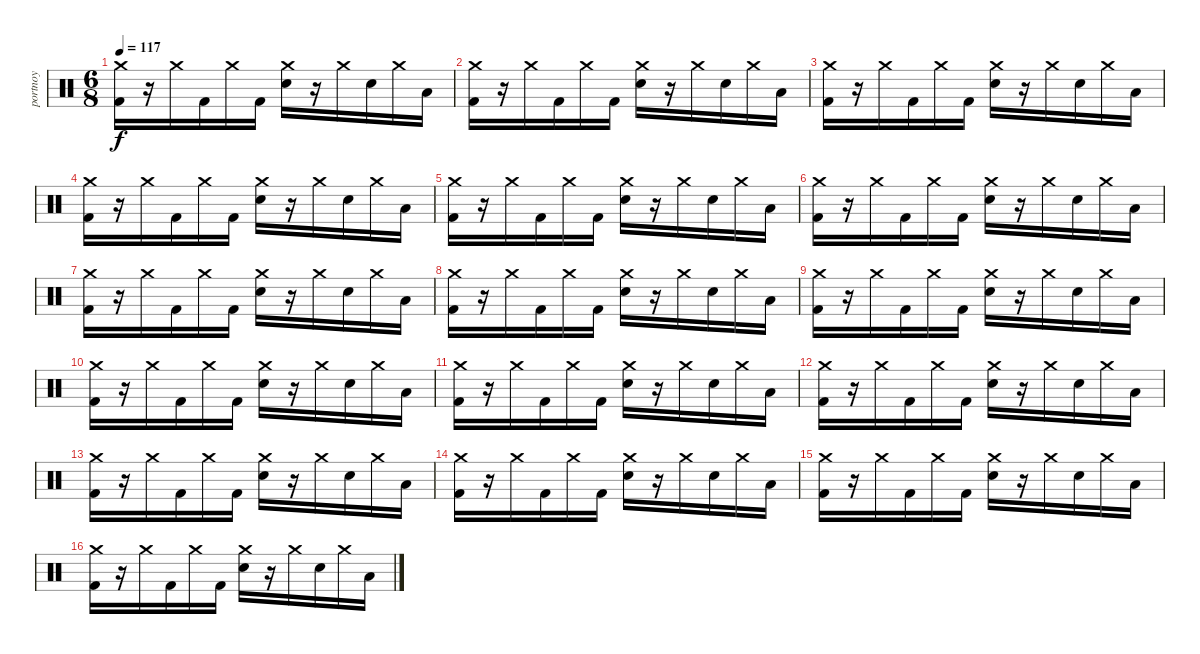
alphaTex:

\track ("portnoy" "portnoy") {instrument percussion}
\staff {score}
\articulation defaults
\ts (6 8)
\tempo 117
\clef neutral
\ks c
("Crash medium (hit)" "Kick (hit) 2").16{dy f} r.16 "Crash medium (hit)".16 "Kick (hit) 2".16 "Crash medium (hit)".16 "Kick (hit) 2".16 ("Crash medium (hit)" "Electric Snare (hit)").16 r.16 "Crash medium (hit)".16 "Electric Snare (hit)".16 "Crash medium (hit)".16 "Low Tom (hit)".16 |
("Crash medium (hit)" "Kick (hit) 2").16 r.16 "Crash medium (hit)".16 "Kick (hit) 2".16 "Crash medium (hit)".16 "Kick (hit) 2".16 ("Crash medium (hit)" "Electric Snare (hit)").16 r.16 "Crash medium (hit)".16 "Electric Snare (hit)".16 "Crash medium (hit)".16 "Low Tom (hit)".16 |
("Crash medium (hit)" "Kick (hit) 2").16 r.16 "Crash medium (hit)".16 "Kick (hit) 2".16 "Crash medium (hit)".16 "Kick (hit) 2".16 ("Crash medium (hit)" "Electric Snare (hit)").16 r.16 "Crash medium (hit)".16 "Electric Snare (hit)".16 "Crash medium (hit)".16 "Low Tom (hit)".16 |
("Crash medium (hit)" "Kick (hit) 2").16 r.16 "Crash medium (hit)".16 "Kick (hit) 2".16 "Crash medium (hit)".16 "Kick (hit) 2".16 ("Crash medium (hit)" "Electric Snare (hit)").16 r.16 "Crash medium (hit)".16 "Electric Snare (hit)".16 "Crash medium (hit)".16 "Low Tom (hit)".16 |
("Crash medium (hit)" "Kick (hit) 2").16 r.16 "Crash medium (hit)".16 "Kick (hit) 2".16 "Crash medium (hit)".16 "Kick (hit) 2".16 ("Crash medium (hit)" "Electric Snare (hit)").16 r.16 "Crash medium (hit)".16 "Electric Snare (hit)".16 "Crash medium (hit)".16 "Low Tom (hit)".16 |
("Crash medium (hit)" "Kick (hit) 2").16 r.16 "Crash medium (hit)".16 "Kick (hit) 2".16 "Crash medium (hit)".16 "Kick (hit) 2".16 ("Crash medium (hit)" "Electric Snare (hit)").16 r.16 "Crash medium (hit)".16 "Electric Snare (hit)".16 "Crash medium (hit)".16 "Low Tom (hit)".16 |
("Crash medium (hit)" "Kick (hit) 2").16 r.16 "Crash medium (hit)".16 "Kick (hit) 2".16 "Crash medium (hit)".16 "Kick (hit) 2".16 ("Crash medium (hit)" "Electric Snare (hit)").16 r.16 "Crash medium (hit)".16 "Electric Snare (hit)".16 "Crash medium (hit)".16 "Low Tom (hit)".16 |
("Crash medium (hit)" "Kick (hit) 2").16 r.16 "Crash medium (hit)".16 "Kick (hit) 2".16 "Crash medium (hit)".16 "Kick (hit) 2".16 ("Crash medium (hit)" "Electric Snare (hit)").16 r.16 "Crash medium (hit)".16 "Electric Snare (hit)".16 "Crash medium (hit)".16 "Low Tom (hit)".16 |
("Crash medium (hit)" "Kick (hit) 2").16 r.16 "Crash medium (hit)".16 "Kick (hit) 2".16 "Crash medium (hit)".16 "Kick (hit) 2".16 ("Crash medium (hit)" "Electric Snare (hit)").16 r.16 "Crash medium (hit)".16 "Electric Snare (hit)".16 "Crash medium (hit)".16 "Low Tom (hit)".16 |
("Crash medium (hit)" "Kick (hit) 2").16 r.16 "Crash medium (hit)".16 "Kick (hit) 2".16 "Crash medium (hit)".16 "Kick (hit) 2".16 ("Crash medium (hit)" "Electric Snare (hit)").16 r.16 "Crash medium (hit)".16 "Electric Snare (hit)".16 "Crash medium (hit)".16 "Low Tom (hit)".16 |
("Crash medium (hit)" "Kick (hit) 2").16 r.16 "Crash medium (hit)".16 "Kick (hit) 2".16 "Crash medium (hit)".16 "Kick (hit) 2".16 ("Crash medium (hit)" "Electric Snare (hit)").16 r.16 "Crash medium (hit)".16 "Electric Snare (hit)".16 "Crash medium (hit)".16 "Low Tom (hit)".16 |
("Crash medium (hit)" "Kick (hit) 2").16 r.16 "Crash medium (hit)".16 "Kick (hit) 2".16 "Crash medium (hit)".16 "Kick (hit) 2".16 ("Crash medium (hit)" "Electric Snare (hit)").16 r.16 "Crash medium (hit)".16 "Electric Snare (hit)".16 "Crash medium (hit)".16 "Low Tom (hit)".16 |
("Crash medium (hit)" "Kick (hit) 2").16 r.16 "Crash medium (hit)".16 "Kick (hit) 2".16 "Crash medium (hit)".16 "Kick (hit) 2".16 ("Crash medium (hit)" "Electric Snare (hit)").16 r.16 "Crash medium (hit)".16 "Electric Snare (hit)".16 "Crash medium (hit)".16 "Low Tom (hit)".16 |
("Crash medium (hit)" "Kick (hit) 2").16 r.16 "Crash medium (hit)".16 "Kick (hit) 2".16 "Crash medium (hit)".16 "Kick (hit) 2".16 ("Crash medium (hit)" "Electric Snare (hit)").16 r.16 "Crash medium (hit)".16 "Electric Snare (hit)".16 "Crash medium (hit)".16 "Low Tom (hit)".16 |
("Crash medium (hit)" "Kick (hit) 2").16 r.16 "Crash medium (hit)".16 "Kick (hit) 2".16 "Crash medium (hit)".16 "Kick (hit) 2".16 ("Crash medium (hit)" "Electric Snare (hit)").16 r.16 "Crash medium (hit)".16 "Electric Snare (hit)".16 "Crash medium (hit)".16 "Low Tom (hit)".16 |
("Crash medium (hit)" "Kick (hit) 2").16 r.16 "Crash medium (hit)".16 "Kick (hit) 2".16 "Crash medium (hit)".16 "Kick (hit) 2".16 ("Crash medium (hit)" "Electric Snare (hit)").16 r.16 "Crash medium (hit)".16 "Electric Snare (hit)".16 "Crash medium (hit)".16 "Low Tom (hit)".16
